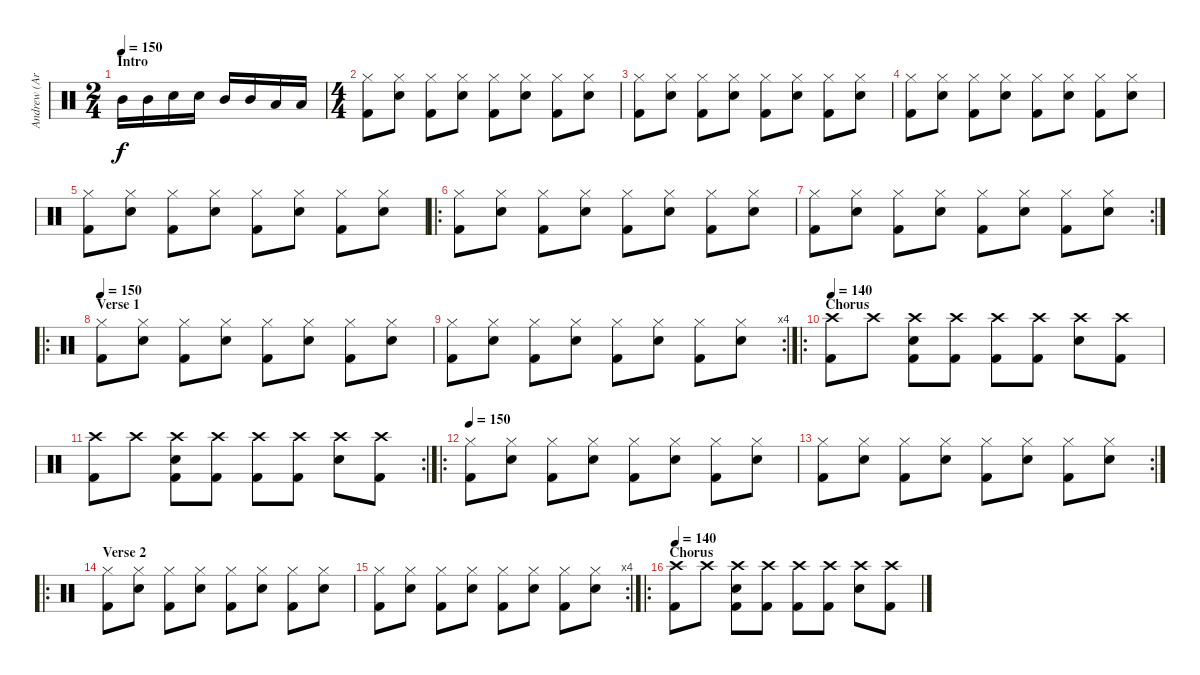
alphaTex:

\track ("Andrew (Arthur)" "Andrew (Ar") {instrument percussion}
\staff {score}
\articulation defaults
\ts (2 4)
\section ("" "Intro")
\tempo 150
\clef neutral
\ks c "Mid Tom (hit)".16{dy f} "Mid Tom (hit)".16 "Electric Snare (hit)".16 "Electric Snare (hit)".16 "Mid Tom (hit)".16 "Mid Tom (hit)".16 "Low Floor Tom (hit)".16 "Low Floor Tom (hit)".16
|
\ts (4 4)
("Hi-Hat (closed)" "Kick (hit) 2").8 ("Hi-Hat (closed)" "Electric Snare (hit)").8 ("Hi-Hat (closed)" "Kick (hit) 2").8 ("Hi-Hat (closed)" "Electric Snare (hit)").8 ("Hi-Hat (closed)" "Kick (hit) 2").8 ("Hi-Hat (closed)" "Electric Snare (hit)").8 ("Hi-Hat (closed)" "Kick (hit) 2").8 ("Hi-Hat (closed)" "Electric Snare (hit)").8 |
("Hi-Hat (closed)" "Kick (hit) 2").8 ("Hi-Hat (closed)" "Electric Snare (hit)").8 ("Hi-Hat (closed)" "Kick (hit) 2").8 ("Hi-Hat (closed)" "Electric Snare (hit)").8 ("Hi-Hat (closed)" "Kick (hit) 2").8 ("Hi-Hat (closed)" "Electric Snare (hit)").8 ("Hi-Hat (closed)" "Kick (hit) 2").8 ("Hi-Hat (closed)" "Electric Snare (hit)").8 |
("Hi-Hat (closed)" "Kick (hit) 2").8 ("Hi-Hat (closed)" "Electric Snare (hit)").8 ("Hi-Hat (closed)" "Kick (hit) 2").8 ("Hi-Hat (closed)" "Electric Snare (hit)").8 ("Hi-Hat (closed)" "Kick (hit) 2").8 ("Hi-Hat (closed)" "Electric Snare (hit)").8 ("Hi-Hat (closed)" "Kick (hit) 2").8 ("Hi-Hat (closed)" "Electric Snare (hit)").8 |
("Hi-Hat (closed)" "Kick (hit) 2").8 ("Hi-Hat (closed)" "Electric Snare (hit)").8 ("Hi-Hat (closed)" "Kick (hit) 2").8 ("Hi-Hat (closed)" "Electric Snare (hit)").8 ("Hi-Hat (closed)" "Kick (hit) 2").8 ("Hi-Hat (closed)" "Electric Snare (hit)").8 ("Hi-Hat (closed)" "Kick (hit) 2").8 ("Hi-Hat (closed)" "Electric Snare (hit)").8 |
\ro
("Hi-Hat (closed)" "Kick (hit) 2").8 ("Hi-Hat (closed)" "Electric Snare (hit)").8 ("Hi-Hat (closed)" "Kick (hit) 2").8 ("Hi-Hat (closed)" "Electric Snare (hit)").8 ("Hi-Hat (closed)" "Kick (hit) 2").8 ("Hi-Hat (closed)" "Electric Snare (hit)").8 ("Hi-Hat (closed)" "Kick (hit) 2").8 ("Hi-Hat (closed)" "Electric Snare (hit)").8 |
\rc 2
("Hi-Hat (closed)" "Kick (hit) 2").8 ("Hi-Hat (closed)" "Electric Snare (hit)").8 ("Hi-Hat (closed)" "Kick (hit) 2").8 ("Hi-Hat (closed)" "Electric Snare (hit)").8 ("Hi-Hat (closed)" "Kick (hit) 2").8 ("Hi-Hat (closed)" "Electric Snare (hit)").8 ("Hi-Hat (closed)" "Kick (hit) 2").8 ("Hi-Hat (closed)" "Electric Snare (hit)").8 |
\ro
\section ("" "Verse 1")
\tempo 150
("Hi-Hat (closed)" "Kick (hit) 2").8 ("Hi-Hat (closed)" "Electric Snare (hit)").8 ("Hi-Hat (closed)" "Kick (hit) 2").8 ("Hi-Hat (closed)" "Electric Snare (hit)").8 ("Hi-Hat (closed)" "Kick (hit) 2").8 ("Hi-Hat (closed)" "Electric Snare (hit)").8 ("Hi-Hat (closed)" "Kick (hit) 2").8 ("Hi-Hat (closed)" "Electric Snare (hit)").8 |
\rc 4
("Hi-Hat (closed)" "Kick (hit) 2").8 ("Hi-Hat (closed)" "Electric Snare (hit)").8 ("Hi-Hat (closed)" "Kick (hit) 2").8 ("Hi-Hat (closed)" "Electric Snare (hit)").8 ("Hi-Hat (closed)" "Kick (hit) 2").8 ("Hi-Hat (closed)" "Electric Snare (hit)").8 ("Hi-Hat (closed)" "Kick (hit) 2").8 ("Hi-Hat (closed)" "Electric Snare (hit)").8 |
\ro
\section ("" "Chorus")
\tempo 140
("Crash high (hit)" "Kick (hit) 2").8 "Crash high (hit)".8 ("Crash high (hit)" "Kick (hit) 2" "Snare (hit) 2").8 ("Crash high (hit)" "Kick (hit) 2").8 ("Crash high (hit)" "Kick (hit) 2").8 ("Crash high (hit)" "Kick (hit) 2").8 ("Crash high (hit)" "Snare (hit) 2").8 ("Crash high (hit)" "Kick (hit) 2").8 |
\rc 2
("Crash high (hit)" "Kick (hit) 2").8 "Crash high (hit)".8 ("Crash high (hit)" "Kick (hit) 2" "Snare (hit) 2").8 ("Crash high (hit)" "Kick (hit) 2").8 ("Crash high (hit)" "Kick (hit) 2").8 ("Crash high (hit)" "Kick (hit) 2").8 ("Crash high (hit)" "Snare (hit) 2").8 ("Crash high (hit)" "Kick (hit) 2").8 |
\ro
\section ("" "")
\tempo 150
("Hi-Hat (closed)" "Kick (hit) 2").8 ("Hi-Hat (closed)" "Electric Snare (hit)").8 ("Hi-Hat (closed)" "Kick (hit) 2").8 ("Hi-Hat (closed)" "Electric Snare (hit)").8 ("Hi-Hat (closed)" "Kick (hit) 2").8 ("Hi-Hat (closed)" "Electric Snare (hit)").8 ("Hi-Hat (closed)" "Kick (hit) 2").8 ("Hi-Hat (closed)" "Electric Snare (hit)").8 |
\rc 2
("Hi-Hat (closed)" "Kick (hit) 2").8 ("Hi-Hat (closed)" "Electric Snare (hit)").8 ("Hi-Hat (closed)" "Kick (hit) 2").8 ("Hi-Hat (closed)" "Electric Snare (hit)").8 ("Hi-Hat (closed)" "Kick (hit) 2").8 ("Hi-Hat (closed)" "Electric Snare (hit)").8 ("Hi-Hat (closed)" "Kick (hit) 2").8 ("Hi-Hat (closed)" "Electric Snare (hit)").8 |
\ro
\section ("" "Verse 2")
("Hi-Hat (closed)" "Kick (hit) 2").8 ("Hi-Hat (closed)" "Electric Snare (hit)").8 ("Hi-Hat (closed)" "Kick (hit) 2").8 ("Hi-Hat (closed)" "Electric Snare (hit)").8 ("Hi-Hat (closed)" "Kick (hit) 2").8 ("Hi-Hat (closed)" "Electric Snare (hit)").8 ("Hi-Hat (closed)" "Kick (hit) 2").8 ("Hi-Hat (closed)" "Electric Snare (hit)").8 |
\rc 4
("Hi-Hat (closed)" "Kick (hit) 2").8 ("Hi-Hat (closed)" "Electric Snare (hit)").8 ("Hi-Hat (closed)" "Kick (hit) 2").8 ("Hi-Hat (closed)" "Electric Snare (hit)").8 ("Hi-Hat (closed)" "Kick (hit) 2").8 ("Hi-Hat (closed)" "Electric Snare (hit)").8 ("Hi-Hat (closed)" "Kick (hit) 2").8 ("Hi-Hat (closed)" "Electric Snare (hit)").8 |
\ro
\section ("" "Chorus")
\tempo 140
("Crash high (hit)" "Kick (hit) 2").8 "Crash high (hit)".8 ("Crash high (hit)" "Kick (hit) 2" "Snare (hit) 2").8 ("Crash high (hit)" "Kick (hit) 2").8 ("Crash high (hit)" "Kick (hit) 2").8 ("Crash high (hit)" "Kick (hit) 2").8 ("Crash high (hit)" "Snare (hit) 2").8 ("Crash high (hit)" "Kick (hit) 2").8
